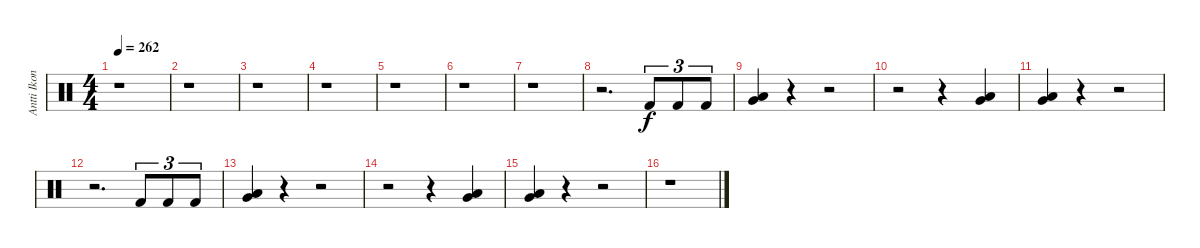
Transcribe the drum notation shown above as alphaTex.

\track ("Antti Ikonen" "Antti Ikon") {instrument percussion}
\staff {score}
\articulation defaults
\ts (4 4)
\tempo 262
\clef neutral
\ks c
r.1{dy f} |
r.1 |
r.1 |
r.1 |
r.1 |
r.1 |
r.1 |
r.2{d} "Kick (hit) 2".8{tu (3 2)} "Kick (hit) 2".8{tu (3 2)} "Kick (hit) 2".8{tu (3 2)} |
("Low Tom (hit)" "Very Low Tom (hit)").4 r.4 r.2 |
r.2 r.4 ("Low Tom (hit)" "Very Low Tom (hit)").4 |
("Low Tom (hit)" "Very Low Tom (hit)").4 r.4 r.2 |
r.2{d} "Kick (hit) 2".8{tu (3 2)} "Kick (hit) 2".8{tu (3 2)} "Kick (hit) 2".8{tu (3 2)} |
("Low Tom (hit)" "Very Low Tom (hit)").4 r.4 r.2 |
r.2 r.4 ("Low Tom (hit)" "Very Low Tom (hit)").4 |
("Low Tom (hit)" "Very Low Tom (hit)").4 r.4 r.2 |
r.1
